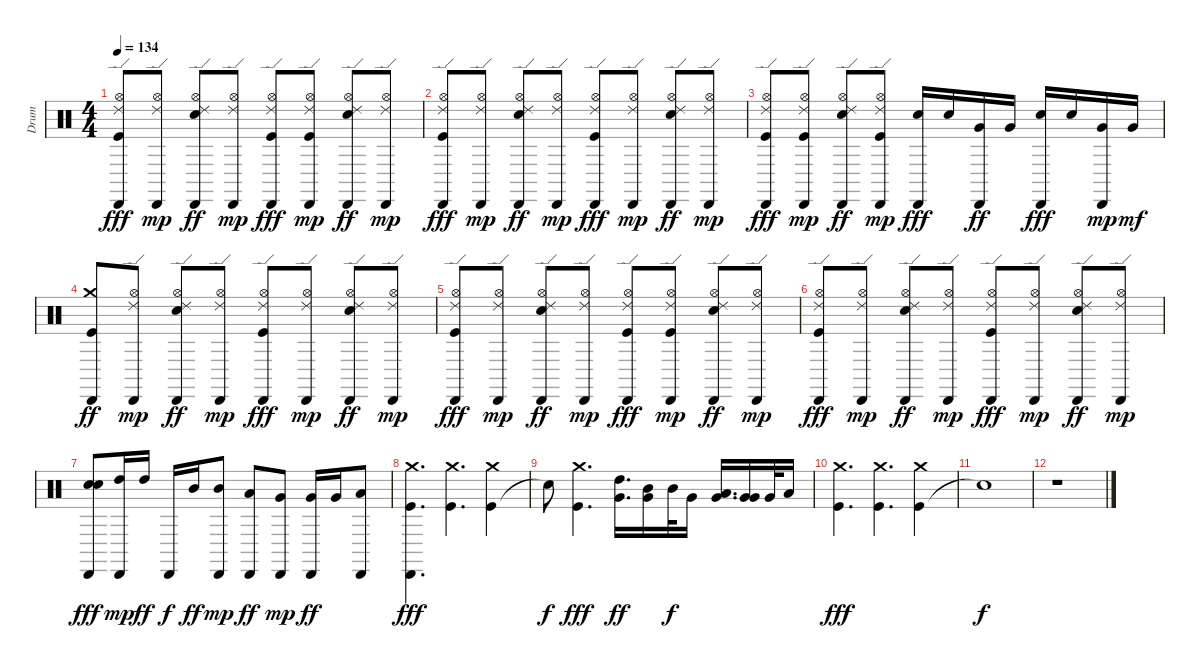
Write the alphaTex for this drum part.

\track ("Drum" "Drum") {instrument percussion}
\staff {score}
\articulation defaults
\ts (4 4)
\tempo 134
\clef neutral
\ks c
("Ride (edge) 2" "Kick (hit)" "Hi-Hat (open)" "Cabasa (hit)").8{dy fff} ("Cabasa (hit)" "Ride (edge) 2" "Hi-Hat (open)").8{dy mp} ("Electric Snare (hit)" "Cabasa (hit)" "Ride (edge) 2" "Hi-Hat (open)").8{dy ff} ("Cabasa (hit)" "Ride (edge) 2" "Hi-Hat (open)").8{dy mp} ("Cabasa (hit)" "Ride (edge) 2" "Kick (hit)" "Hi-Hat (open)").8{dy fff} ("Cabasa (hit)" "Kick (hit)" "Ride (edge) 2" "Hi-Hat (open)").8{dy mp} ("Cabasa (hit)" "Electric Snare (hit)" "Ride (edge) 2" "Hi-Hat (open)").8{dy ff} ("Cabasa (hit)" "Ride (edge) 2" "Hi-Hat (open)").8{dy mp} |
("Ride (edge) 2" "Kick (hit)" "Hi-Hat (open)" "Cabasa (hit)").8{dy fff} ("Cabasa (hit)" "Ride (edge) 2" "Hi-Hat (open)").8{dy mp} ("Electric Snare (hit)" "Cabasa (hit)" "Ride (edge) 2" "Hi-Hat (open)").8{dy ff} ("Cabasa (hit)" "Ride (edge) 2" "Hi-Hat (open)").8{dy mp} ("Cabasa (hit)" "Ride (edge) 2" "Kick (hit)" "Hi-Hat (open)").8{dy fff} ("Cabasa (hit)" "Ride (edge) 2" "Hi-Hat (open)").8{dy mp} ("Cabasa (hit)" "Electric Snare (hit)" "Ride (edge) 2" "Hi-Hat (open)").8{dy ff} ("Cabasa (hit)" "Ride (edge) 2" "Hi-Hat (open)").8{dy mp} |
("Ride (edge) 2" "Kick (hit)" "Hi-Hat (open)" "Cabasa (hit)").8{dy fff} ("Cabasa (hit)" "Kick (hit)" "Ride (edge) 2" "Hi-Hat (open)").8{dy mp} ("Electric Snare (hit)" "Cabasa (hit)" "Ride (edge) 2" "Hi-Hat (open)").8{dy ff} ("Cabasa (hit)" "Kick (hit)" "Ride (edge) 2" "Hi-Hat (open)").8{dy mp} ("Cabasa (hit)" "Electric Snare (hit)").16{dy fff} "Electric Snare (hit)".16 ("Cabasa (hit)" "Very Low Tom (hit)").16{dy ff} "Very Low Tom (hit)".16 ("Cabasa (hit)" "Electric Snare (hit)").16{dy fff} "Electric Snare (hit)".16 ("Cabasa (hit)" "Very Low Tom (hit)").16{dy mp} "Very Low Tom (hit)".16{dy mf} |
("Cabasa (hit)" "Kick (hit)" "Crash medium (hit)").8{dy ff} ("Cabasa (hit)" "Ride (edge) 2" "Hi-Hat (open)").8{dy mp} ("Cabasa (hit)" "Electric Snare (hit)" "Ride (edge) 2" "Hi-Hat (open)").8{dy ff} ("Cabasa (hit)" "Ride (edge) 2" "Hi-Hat (open)").8{dy mp} ("Cabasa (hit)" "Ride (edge) 2" "Kick (hit)" "Hi-Hat (open)").8{dy fff} ("Cabasa (hit)" "Ride (edge) 2" "Hi-Hat (open)").8{dy mp} ("Cabasa (hit)" "Electric Snare (hit)" "Ride (edge) 2" "Hi-Hat (open)").8{dy ff} ("Cabasa (hit)" "Ride (edge) 2" "Hi-Hat (open)").8{dy mp} |
("Cabasa (hit)" "Ride (edge) 2" "Kick (hit)" "Hi-Hat (open)").8{dy fff} ("Cabasa (hit)" "Ride (edge) 2" "Hi-Hat (open)").8{dy mp} ("Cabasa (hit)" "Electric Snare (hit)" "Ride (edge) 2" "Hi-Hat (open)").8{dy ff} ("Cabasa (hit)" "Ride (edge) 2" "Hi-Hat (open)").8{dy mp} ("Cabasa (hit)" "Ride (edge) 2" "Kick (hit)" "Hi-Hat (open)").8{dy fff} ("Cabasa (hit)" "Kick (hit)" "Ride (edge) 2" "Hi-Hat (open)").8{dy mp} ("Cabasa (hit)" "Electric Snare (hit)" "Ride (edge) 2" "Hi-Hat (open)").8{dy ff} ("Cabasa (hit)" "Ride (edge) 2" "Hi-Hat (open)").8{dy mp} |
("Ride (edge) 2" "Kick (hit)" "Hi-Hat (open)" "Cabasa (hit)").8{dy fff} ("Cabasa (hit)" "Ride (edge) 2" "Hi-Hat (open)").8{dy mp} ("Electric Snare (hit)" "Cabasa (hit)" "Ride (edge) 2" "Hi-Hat (open)").8{dy ff} ("Cabasa (hit)" "Ride (edge) 2" "Hi-Hat (open)").8{dy mp} ("Cabasa (hit)" "Ride (edge) 2" "Kick (hit)" "Hi-Hat (open)").8{dy fff} ("Cabasa (hit)" "Ride (edge) 2" "Hi-Hat (open)").8{dy mp} ("Cabasa (hit)" "Electric Snare (hit)" "Ride (edge) 2" "Hi-Hat (open)").8{dy ff} ("Cabasa (hit)" "Ride (edge) 2" "Hi-Hat (open)").8{dy mp} |
("Electric Snare (hit)" "Cabasa (hit)" "Electric Snare (hit)").8{dy fff} ("High Tom (hit)" "Cabasa (hit)").16{dy mp} "High Tom (hit)".16{dy ff} "Cabasa (hit)".16{dy f} "Mid Tom (hit)".16{dy ff} ("Mid Tom (hit)" "Cabasa (hit)").8{dy mp} ("Low Tom (hit)" "Cabasa (hit)").8{dy ff} ("Very Low Tom (hit)" "Cabasa (hit)").8{dy mp} ("Very Low Tom (hit)" "Cabasa (hit)").16{dy ff} "Very Low Tom (hit)".16 ("Cabasa (hit)" "Low Floor Tom (hit)").8 |
("Kick (hit)" "Cabasa (hit)" "Crash medium (hit)").4{d dy fff} ("Kick (hit)" "Crash medium (hit)").4{d} ("Kick (hit)" "Crash medium (hit)").4 |
"Snare (hit)"{t}.8{dy f} ("Kick (hit)" "Crash medium (hit)").4{d dy fff} ("High Tom (hit)" "Very Low Tom (hit)").16{d dy ff} ("Mid Tom (hit)" "Very Low Tom (hit)").16 "Mid Tom (hit)".32{dy f} "Very Low Tom (hit)".16 ("Low Tom (hit)" "Very Low Tom (hit)").16{d} ("Very Low Tom (hit)" "Very Low Tom (hit)").16 "Very Low Tom (hit)".32 "Low Floor Tom (hit)".16 |
("Kick (hit)" "Crash medium (hit)").4{d dy fff} ("Kick (hit)" "Crash medium (hit)").4{d} ("Kick (hit)" "Crash medium (hit)").4 |
"Snare (hit)"{t}.1{dy f} |
r.1
